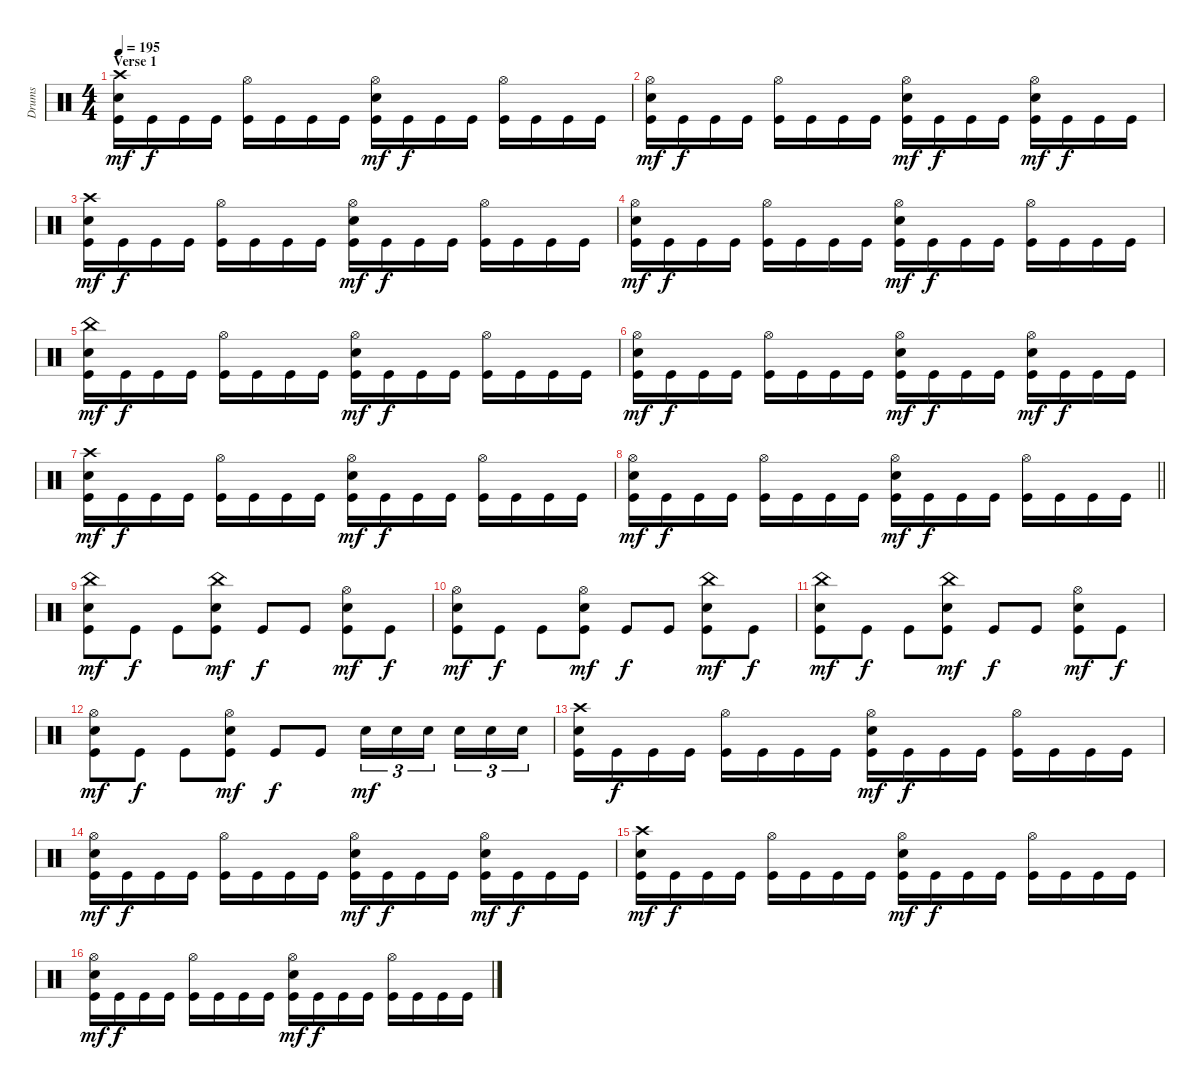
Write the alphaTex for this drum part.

\track ("Drums" "Drums") {instrument percussion}
\staff {score}
\articulation defaults
\ts (4 4)
\section ("" "Verse 1")
\tempo 195
\clef neutral
\ks c
("Crash high (hit)" "Snare (hit) 2" "Kick (hit)").16{dy mf} "Kick (hit)".16{dy f} "Kick (hit)".16 "Kick (hit)".16 ("Hi-Hat (open)" "Kick (hit)").16 "Kick (hit)".16 "Kick (hit)".16 "Kick (hit)".16 ("Hi-Hat (open)" "Snare (hit) 2" "Kick (hit)").16{dy mf} "Kick (hit)".16{dy f} "Kick (hit)".16 "Kick (hit)".16 ("Hi-Hat (open)" "Kick (hit)").16 "Kick (hit)".16 "Kick (hit)".16 "Kick (hit)".16 |
("Hi-Hat (open)" "Snare (hit) 2" "Kick (hit)").16{dy mf} "Kick (hit)".16{dy f} "Kick (hit)".16 "Kick (hit)".16 ("Hi-Hat (open)" "Kick (hit)").16 "Kick (hit)".16 "Kick (hit)".16 "Kick (hit)".16 ("Hi-Hat (open)" "Snare (hit) 2" "Kick (hit)").16{dy mf} "Kick (hit)".16{dy f} "Kick (hit)".16 "Kick (hit)".16 ("Hi-Hat (open)" "Snare (hit) 2" "Kick (hit)").16{dy mf} "Kick (hit)".16{dy f} "Kick (hit)".16 "Kick (hit)".16 |
("Crash high (hit)" "Snare (hit) 2" "Kick (hit)").16{dy mf} "Kick (hit)".16{dy f} "Kick (hit)".16 "Kick (hit)".16 ("Hi-Hat (open)" "Kick (hit)").16 "Kick (hit)".16 "Kick (hit)".16 "Kick (hit)".16 ("Hi-Hat (open)" "Snare (hit) 2" "Kick (hit)").16{dy mf} "Kick (hit)".16{dy f} "Kick (hit)".16 "Kick (hit)".16 ("Hi-Hat (open)" "Kick (hit)").16 "Kick (hit)".16 "Kick (hit)".16 "Kick (hit)".16 |
("Hi-Hat (open)" "Snare (hit) 2" "Kick (hit)").16{dy mf} "Kick (hit)".16{dy f} "Kick (hit)".16 "Kick (hit)".16 ("Hi-Hat (open)" "Kick (hit)").16 "Kick (hit)".16 "Kick (hit)".16 "Kick (hit)".16 ("Hi-Hat (open)" "Snare (hit) 2" "Kick (hit)").16{dy mf} "Kick (hit)".16{dy f} "Kick (hit)".16 "Kick (hit)".16 ("Hi-Hat (open)" "Kick (hit)").16 "Kick (hit)".16 "Kick (hit)".16 "Kick (hit)".16 |
("China (hit)" "Snare (hit) 2" "Kick (hit)").16{dy mf} "Kick (hit)".16{dy f} "Kick (hit)".16 "Kick (hit)".16 ("Hi-Hat (open)" "Kick (hit)").16 "Kick (hit)".16 "Kick (hit)".16 "Kick (hit)".16 ("Hi-Hat (open)" "Snare (hit) 2" "Kick (hit)").16{dy mf} "Kick (hit)".16{dy f} "Kick (hit)".16 "Kick (hit)".16 ("Hi-Hat (open)" "Kick (hit)").16 "Kick (hit)".16 "Kick (hit)".16 "Kick (hit)".16 |
("Hi-Hat (open)" "Snare (hit) 2" "Kick (hit)").16{dy mf} "Kick (hit)".16{dy f} "Kick (hit)".16 "Kick (hit)".16 ("Hi-Hat (open)" "Kick (hit)").16 "Kick (hit)".16 "Kick (hit)".16 "Kick (hit)".16 ("Hi-Hat (open)" "Snare (hit) 2" "Kick (hit)").16{dy mf} "Kick (hit)".16{dy f} "Kick (hit)".16 "Kick (hit)".16 ("Hi-Hat (open)" "Snare (hit) 2" "Kick (hit)").16{dy mf} "Kick (hit)".16{dy f} "Kick (hit)".16 "Kick (hit)".16 |
("Crash high (hit)" "Snare (hit) 2" "Kick (hit)").16{dy mf} "Kick (hit)".16{dy f} "Kick (hit)".16 "Kick (hit)".16 ("Hi-Hat (open)" "Kick (hit)").16 "Kick (hit)".16 "Kick (hit)".16 "Kick (hit)".16 ("Hi-Hat (open)" "Snare (hit) 2" "Kick (hit)").16{dy mf} "Kick (hit)".16{dy f} "Kick (hit)".16 "Kick (hit)".16 ("Hi-Hat (open)" "Kick (hit)").16 "Kick (hit)".16 "Kick (hit)".16 "Kick (hit)".16 |
\barLineRight lightlight
("Hi-Hat (open)" "Snare (hit) 2" "Kick (hit)").16{dy mf} "Kick (hit)".16{dy f} "Kick (hit)".16 "Kick (hit)".16 ("Hi-Hat (open)" "Kick (hit)").16 "Kick (hit)".16 "Kick (hit)".16 "Kick (hit)".16 ("Hi-Hat (open)" "Snare (hit) 2" "Kick (hit)").16{dy mf} "Kick (hit)".16{dy f} "Kick (hit)".16 "Kick (hit)".16 ("Hi-Hat (open)" "Kick (hit)").16 "Kick (hit)".16 "Kick (hit)".16 "Kick (hit)".16 |
("China (hit)" "Snare (hit) 2" "Kick (hit)").8{dy mf} "Kick (hit)".8{dy f} "Kick (hit)".8 ("China (hit)" "Snare (hit) 2" "Kick (hit)").8{dy mf} "Kick (hit)".8{dy f} "Kick (hit)".8 ("Hi-Hat (open)" "Snare (hit) 2" "Kick (hit)").8{dy mf} "Kick (hit)".8{dy f} |
("Hi-Hat (open)" "Snare (hit) 2" "Kick (hit)").8{dy mf} "Kick (hit)".8{dy f} "Kick (hit)".8 ("Hi-Hat (open)" "Snare (hit) 2" "Kick (hit)").8{dy mf} "Kick (hit)".8{dy f} "Kick (hit)".8 ("China (hit)" "Snare (hit) 2" "Kick (hit)").8{dy mf} "Kick (hit)".8{dy f} |
("China (hit)" "Snare (hit) 2" "Kick (hit)").8{dy mf} "Kick (hit)".8{dy f} "Kick (hit)".8 ("China (hit)" "Snare (hit) 2" "Kick (hit)").8{dy mf} "Kick (hit)".8{dy f} "Kick (hit)".8 ("Hi-Hat (open)" "Snare (hit) 2" "Kick (hit)").8{dy mf} "Kick (hit)".8{dy f} |
("Hi-Hat (open)" "Snare (hit) 2" "Kick (hit)").8{dy mf} "Kick (hit)".8{dy f} "Kick (hit)".8 ("Hi-Hat (open)" "Snare (hit) 2" "Kick (hit)").8{dy mf} "Kick (hit)".8{dy f} "Kick (hit)".8 "Snare (hit) 2".16{tu (3 2) dy mf} "Snare (hit) 2".16{tu (3 2)} "Snare (hit) 2".16{tu (3 2) beam splitsecondary} "Snare (hit) 2".16{tu (3 2)} "Snare (hit) 2".16{tu (3 2)} "Snare (hit) 2".16{tu (3 2)} |
("Crash high (hit)" "Snare (hit) 2" "Kick (hit)").16 "Kick (hit)".16{dy f} "Kick (hit)".16 "Kick (hit)".16 ("Hi-Hat (open)" "Kick (hit)").16 "Kick (hit)".16 "Kick (hit)".16 "Kick (hit)".16 ("Hi-Hat (open)" "Snare (hit) 2" "Kick (hit)").16{dy mf} "Kick (hit)".16{dy f} "Kick (hit)".16 "Kick (hit)".16 ("Hi-Hat (open)" "Kick (hit)").16 "Kick (hit)".16 "Kick (hit)".16 "Kick (hit)".16 |
("Hi-Hat (open)" "Snare (hit) 2" "Kick (hit)").16{dy mf} "Kick (hit)".16{dy f} "Kick (hit)".16 "Kick (hit)".16 ("Hi-Hat (open)" "Kick (hit)").16 "Kick (hit)".16 "Kick (hit)".16 "Kick (hit)".16 ("Hi-Hat (open)" "Snare (hit) 2" "Kick (hit)").16{dy mf} "Kick (hit)".16{dy f} "Kick (hit)".16 "Kick (hit)".16 ("Hi-Hat (open)" "Snare (hit) 2" "Kick (hit)").16{dy mf} "Kick (hit)".16{dy f} "Kick (hit)".16 "Kick (hit)".16 |
("Crash high (hit)" "Snare (hit) 2" "Kick (hit)").16{dy mf} "Kick (hit)".16{dy f} "Kick (hit)".16 "Kick (hit)".16 ("Hi-Hat (open)" "Kick (hit)").16 "Kick (hit)".16 "Kick (hit)".16 "Kick (hit)".16 ("Hi-Hat (open)" "Snare (hit) 2" "Kick (hit)").16{dy mf} "Kick (hit)".16{dy f} "Kick (hit)".16 "Kick (hit)".16 ("Hi-Hat (open)" "Kick (hit)").16 "Kick (hit)".16 "Kick (hit)".16 "Kick (hit)".16 |
("Hi-Hat (open)" "Snare (hit) 2" "Kick (hit)").16{dy mf} "Kick (hit)".16{dy f} "Kick (hit)".16 "Kick (hit)".16 ("Hi-Hat (open)" "Kick (hit)").16 "Kick (hit)".16 "Kick (hit)".16 "Kick (hit)".16 ("Hi-Hat (open)" "Snare (hit) 2" "Kick (hit)").16{dy mf} "Kick (hit)".16{dy f} "Kick (hit)".16 "Kick (hit)".16 ("Hi-Hat (open)" "Kick (hit)").16 "Kick (hit)".16 "Kick (hit)".16 "Kick (hit)".16
